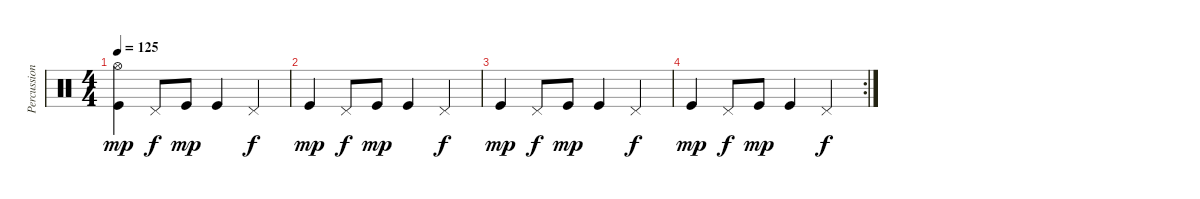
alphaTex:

\track ("Percussion" "Percussion") {instrument percussion}
\staff {score}
\articulation defaults
\ts (4 4)
\tempo 125
\clef neutral
\ks c
("Hi-Hat (open)" "Kick (hit)").4{dy mp} "Pedal Hi-Hat (hit)".8{dy f} "Kick (hit)".8{dy mp} "Kick (hit)".4 "Pedal Hi-Hat (hit)".4{dy f} |
"Kick (hit)".4{dy mp} "Pedal Hi-Hat (hit)".8{dy f} "Kick (hit)".8{dy mp} "Kick (hit)".4 "Pedal Hi-Hat (hit)".4{dy f} |
"Kick (hit)".4{dy mp} "Pedal Hi-Hat (hit)".8{dy f} "Kick (hit)".8{dy mp} "Kick (hit)".4 "Pedal Hi-Hat (hit)".4{dy f} |
\rc 2 "Kick (hit)".4{dy mp} "Pedal Hi-Hat (hit)".8{dy f} "Kick (hit)".8{dy mp} "Kick (hit)".4 "Pedal Hi-Hat (hit)".4{dy f}
